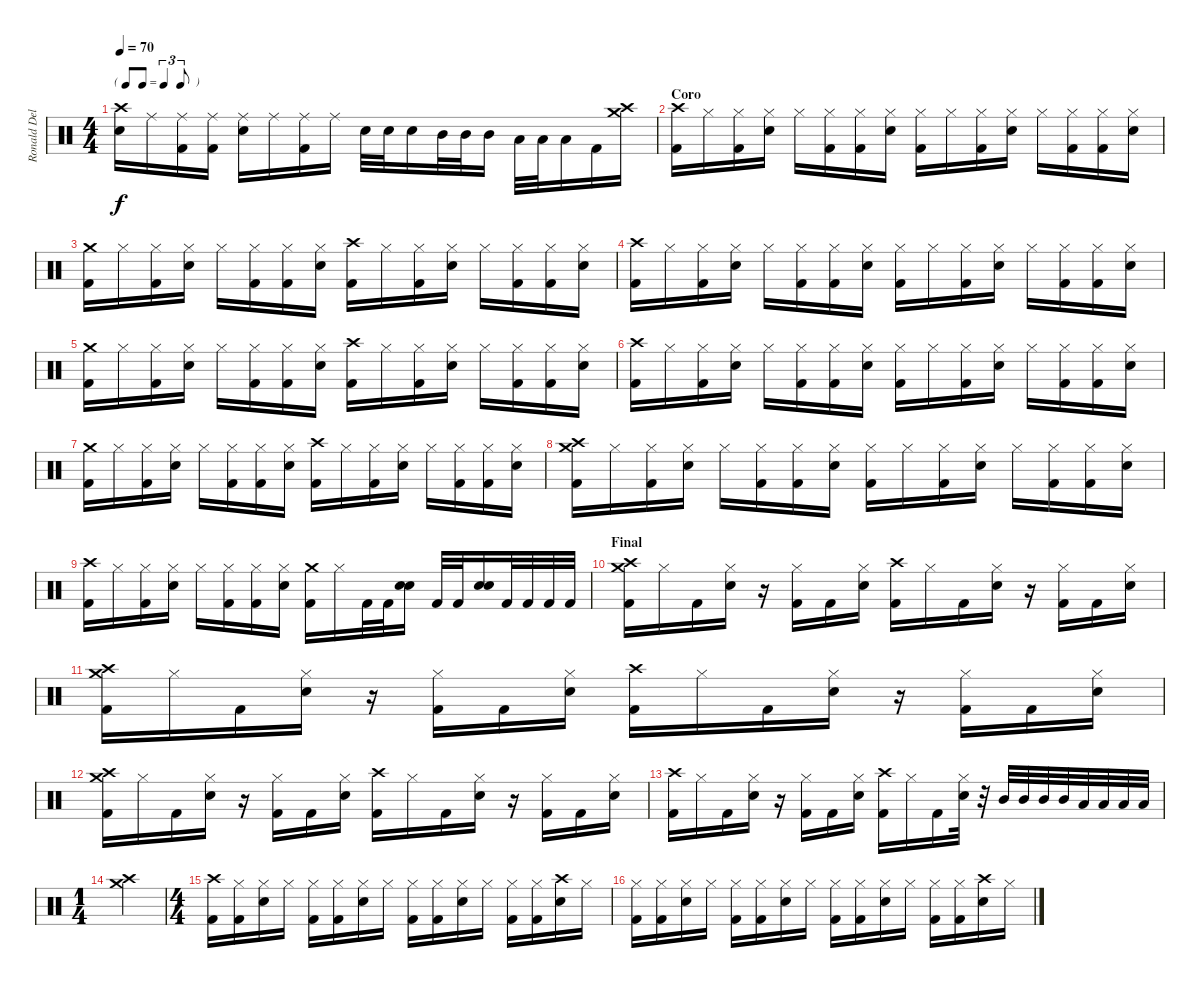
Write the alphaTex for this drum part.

\track ("Ronald Del Aguila (Bateria)" "Ronald Del") {instrument percussion}
\staff {score}
\articulation defaults
\ts (4 4)
\tf triplet8th
\tempo 70
\clef neutral
\ks c
("Crash high (hit)" "Snare (hit) 2").16{dy f} "Ride (middle)".16 ("Ride (middle)" "Kick (hit) 2").16 ("Ride (middle)" "Kick (hit) 2").16 ("Ride (middle)" "Snare (hit) 2").16 "Ride (middle)".16 ("Ride (middle)" "Kick (hit) 2").16 "Ride (middle)".16 "Snare (hit) 2".32 "Snare (hit) 2".32 "Snare (hit) 2".16 "Mid Tom (hit)".32 "Mid Tom (hit)".32 "Mid Tom (hit)".16 "Low Tom (hit)".32 "Low Tom (hit)".32 "Low Tom (hit)".16 "Kick (hit) 2".16 ("Crash high (hit)" "Crash medium (hit)").16 |
\section ("" "Coro")
("Crash high (hit)" "Kick (hit) 2").16 "Hi-Hat (closed)".16 ("Hi-Hat (closed)" "Kick (hit) 2").16 ("Hi-Hat (closed)" "Snare (hit) 2").16 "Hi-Hat (closed)".16 ("Hi-Hat (closed)" "Kick (hit) 2").16 ("Hi-Hat (closed)" "Kick (hit) 2").16 ("Hi-Hat (closed)" "Snare (hit) 2").16 ("Hi-Hat (closed)" "Kick (hit) 2").16 "Hi-Hat (closed)".16 ("Hi-Hat (closed)" "Kick (hit) 2").16 ("Hi-Hat (closed)" "Snare (hit) 2").16 "Hi-Hat (closed)".16 ("Hi-Hat (closed)" "Kick (hit) 2").16 ("Hi-Hat (closed)" "Kick (hit) 2").16 ("Hi-Hat (closed)" "Snare (hit) 2").16 |
("Crash medium (hit)" "Kick (hit) 2").16 "Hi-Hat (closed)".16 ("Hi-Hat (closed)" "Kick (hit) 2").16 ("Hi-Hat (closed)" "Snare (hit) 2").16 "Hi-Hat (closed)".16 ("Hi-Hat (closed)" "Kick (hit) 2").16 ("Hi-Hat (closed)" "Kick (hit) 2").16 ("Hi-Hat (closed)" "Snare (hit) 2").16 ("Crash high (hit)" "Kick (hit) 2").16 "Hi-Hat (closed)".16 ("Hi-Hat (closed)" "Kick (hit) 2").16 ("Hi-Hat (closed)" "Snare (hit) 2").16 "Hi-Hat (closed)".16 ("Hi-Hat (closed)" "Kick (hit) 2").16 ("Hi-Hat (closed)" "Kick (hit) 2").16 ("Hi-Hat (closed)" "Snare (hit) 2").16 |
("Crash high (hit)" "Kick (hit) 2").16 "Hi-Hat (closed)".16 ("Hi-Hat (closed)" "Kick (hit) 2").16 ("Hi-Hat (closed)" "Snare (hit) 2").16 "Hi-Hat (closed)".16 ("Hi-Hat (closed)" "Kick (hit) 2").16 ("Hi-Hat (closed)" "Kick (hit) 2").16 ("Hi-Hat (closed)" "Snare (hit) 2").16 ("Hi-Hat (closed)" "Kick (hit) 2").16 "Hi-Hat (closed)".16 ("Hi-Hat (closed)" "Kick (hit) 2").16 ("Hi-Hat (closed)" "Snare (hit) 2").16 "Hi-Hat (closed)".16 ("Hi-Hat (closed)" "Kick (hit) 2").16 ("Hi-Hat (closed)" "Kick (hit) 2").16 ("Hi-Hat (closed)" "Snare (hit) 2").16 |
("Crash medium (hit)" "Kick (hit) 2").16 "Hi-Hat (closed)".16 ("Hi-Hat (closed)" "Kick (hit) 2").16 ("Hi-Hat (closed)" "Snare (hit) 2").16 "Hi-Hat (closed)".16 ("Hi-Hat (closed)" "Kick (hit) 2").16 ("Hi-Hat (closed)" "Kick (hit) 2").16 ("Hi-Hat (closed)" "Snare (hit) 2").16 ("Crash high (hit)" "Kick (hit) 2").16 "Hi-Hat (closed)".16 ("Hi-Hat (closed)" "Kick (hit) 2").16 ("Hi-Hat (closed)" "Snare (hit) 2").16 "Hi-Hat (closed)".16 ("Hi-Hat (closed)" "Kick (hit) 2").16 ("Hi-Hat (closed)" "Kick (hit) 2").16 ("Hi-Hat (closed)" "Snare (hit) 2").16 |
("Crash high (hit)" "Kick (hit) 2").16 "Hi-Hat (closed)".16 ("Hi-Hat (closed)" "Kick (hit) 2").16 ("Hi-Hat (closed)" "Snare (hit) 2").16 "Hi-Hat (closed)".16 ("Hi-Hat (closed)" "Kick (hit) 2").16 ("Hi-Hat (closed)" "Kick (hit) 2").16 ("Hi-Hat (closed)" "Snare (hit) 2").16 ("Hi-Hat (closed)" "Kick (hit) 2").16 "Hi-Hat (closed)".16 ("Hi-Hat (closed)" "Kick (hit) 2").16 ("Hi-Hat (closed)" "Snare (hit) 2").16 "Hi-Hat (closed)".16 ("Hi-Hat (closed)" "Kick (hit) 2").16 ("Hi-Hat (closed)" "Kick (hit) 2").16 ("Hi-Hat (closed)" "Snare (hit) 2").16 |
("Crash medium (hit)" "Kick (hit) 2").16 "Hi-Hat (closed)".16 ("Hi-Hat (closed)" "Kick (hit) 2").16 ("Hi-Hat (closed)" "Snare (hit) 2").16 "Hi-Hat (closed)".16 ("Hi-Hat (closed)" "Kick (hit) 2").16 ("Hi-Hat (closed)" "Kick (hit) 2").16 ("Hi-Hat (closed)" "Snare (hit) 2").16 ("Crash high (hit)" "Kick (hit) 2").16 "Hi-Hat (closed)".16 ("Hi-Hat (closed)" "Kick (hit) 2").16 ("Hi-Hat (closed)" "Snare (hit) 2").16 "Hi-Hat (closed)".16 ("Hi-Hat (closed)" "Kick (hit) 2").16 ("Hi-Hat (closed)" "Kick (hit) 2").16 ("Hi-Hat (closed)" "Snare (hit) 2").16 |
("Crash medium (hit)" "Crash high (hit)" "Kick (hit) 2").16 "Hi-Hat (closed)".16 ("Hi-Hat (closed)" "Kick (hit) 2").16 ("Hi-Hat (closed)" "Snare (hit) 2").16 "Hi-Hat (closed)".16 ("Hi-Hat (closed)" "Kick (hit) 2").16 ("Hi-Hat (closed)" "Kick (hit) 2").16 ("Hi-Hat (closed)" "Snare (hit) 2").16 ("Hi-Hat (closed)" "Kick (hit) 2").16 "Hi-Hat (closed)".16 ("Hi-Hat (closed)" "Kick (hit) 2").16 ("Hi-Hat (closed)" "Snare (hit) 2").16 "Hi-Hat (closed)".16 ("Hi-Hat (closed)" "Kick (hit) 2").16 ("Hi-Hat (closed)" "Kick (hit) 2").16 ("Hi-Hat (closed)" "Snare (hit) 2").16 |
("Crash high (hit)" "Kick (hit) 2").16 "Hi-Hat (closed)".16 ("Hi-Hat (closed)" "Kick (hit) 2").16 ("Hi-Hat (closed)" "Snare (hit) 2").16 "Hi-Hat (closed)".16 ("Hi-Hat (closed)" "Kick (hit) 2").16 ("Hi-Hat (closed)" "Kick (hit) 2").16 ("Hi-Hat (closed)" "Snare (hit) 2").16 ("Crash medium (hit)" "Kick (hit) 2").16 "Hi-Hat (closed)".16 "Kick (hit) 2".32 "Kick (hit) 2".32 ("Snare (hit) 2" "Snare (hit) 2").16 "Kick (hit) 2".32 "Kick (hit) 2".32 ("Snare (hit) 2" "Snare (hit) 2").16 "Kick (hit) 2".32 "Kick (hit) 2".32 "Kick (hit) 2".32 "Kick (hit) 2".32 |
\section ("" "Final")
("Crash medium (hit)" "Crash high (hit)" "Kick (hit) 2").16 "Hi-Hat (closed)".16 "Kick (hit) 2".16 ("Hi-Hat (closed)" "Snare (hit) 2").16 r.16 ("Hi-Hat (closed)" "Kick (hit) 2").16 "Kick (hit) 2".16 ("Hi-Hat (closed)" "Snare (hit) 2").16 ("Crash high (hit)" "Kick (hit) 2").16 "Hi-Hat (closed)".16 "Kick (hit) 2".16 ("Hi-Hat (closed)" "Snare (hit) 2").16 r.16 ("Hi-Hat (closed)" "Kick (hit) 2").16 "Kick (hit) 2".16 ("Hi-Hat (closed)" "Snare (hit) 2").16 |
("Crash medium (hit)" "Crash high (hit)" "Kick (hit) 2").16 "Hi-Hat (closed)".16 "Kick (hit) 2".16 ("Hi-Hat (closed)" "Snare (hit) 2").16 r.16 ("Hi-Hat (closed)" "Kick (hit) 2").16 "Kick (hit) 2".16 ("Hi-Hat (closed)" "Snare (hit) 2").16 ("Crash high (hit)" "Kick (hit) 2").16 "Hi-Hat (closed)".16 "Kick (hit) 2".16 ("Hi-Hat (closed)" "Snare (hit) 2").16 r.16 ("Hi-Hat (closed)" "Kick (hit) 2").16 "Kick (hit) 2".16 ("Hi-Hat (closed)" "Snare (hit) 2").16 |
("Crash medium (hit)" "Crash high (hit)" "Kick (hit) 2").16 "Hi-Hat (closed)".16 "Kick (hit) 2".16 ("Hi-Hat (closed)" "Snare (hit) 2").16 r.16 ("Hi-Hat (closed)" "Kick (hit) 2").16 "Kick (hit) 2".16 ("Hi-Hat (closed)" "Snare (hit) 2").16 ("Crash high (hit)" "Kick (hit) 2").16 "Hi-Hat (closed)".16 "Kick (hit) 2".16 ("Hi-Hat (closed)" "Snare (hit) 2").16 r.16 ("Hi-Hat (closed)" "Kick (hit) 2").16 "Kick (hit) 2".16 ("Hi-Hat (closed)" "Snare (hit) 2").16 |
("Crash high (hit)" "Kick (hit) 2").16 "Hi-Hat (closed)".16 "Kick (hit) 2".16 ("Hi-Hat (closed)" "Snare (hit) 2").16 r.16 ("Hi-Hat (closed)" "Kick (hit) 2").16 "Kick (hit) 2".16 ("Hi-Hat (closed)" "Snare (hit) 2").16 ("Crash high (hit)" "Kick (hit) 2").16 "Hi-Hat (closed)".16 "Kick (hit) 2".16 ("Hi-Hat (closed)" "Snare (hit) 2").32 r.32 "Mid Tom (hit)".32 "Mid Tom (hit)".32 "Mid Tom (hit)".32 "Mid Tom (hit)".32 "Low Tom (hit)".32 "Low Tom (hit)".32 "Low Tom (hit)".32 "Low Tom (hit)".32 |
\ts (1 4)
("Crash high (hit)" "Crash medium (hit)").4 |
\ts (4 4)
("Kick (hit) 2" "Crash high (hit)").16 ("Kick (hit) 2" "Hi-Hat (closed)").16 ("Snare (hit) 2" "Hi-Hat (closed)").16 "Hi-Hat (closed)".16 ("Kick (hit) 2" "Hi-Hat (closed)").16 ("Kick (hit) 2" "Hi-Hat (closed)").16 ("Snare (hit) 2" "Hi-Hat (closed)").16 "Hi-Hat (closed)".16 ("Kick (hit) 2" "Hi-Hat (closed)").16 ("Kick (hit) 2" "Hi-Hat (closed)").16 ("Snare (hit) 2" "Hi-Hat (closed)").16 "Hi-Hat (closed)".16 ("Kick (hit) 2" "Hi-Hat (closed)").16 ("Kick (hit) 2" "Hi-Hat (closed)").16 ("Snare (hit) 2" "Crash high (hit)").16 "Hi-Hat (closed)".16 |
("Kick (hit) 2" "Hi-Hat (closed)").16 ("Kick (hit) 2" "Hi-Hat (closed)").16 ("Snare (hit) 2" "Hi-Hat (closed)").16 "Hi-Hat (closed)".16 ("Kick (hit) 2" "Hi-Hat (closed)").16 ("Kick (hit) 2" "Hi-Hat (closed)").16 ("Snare (hit) 2" "Hi-Hat (closed)").16 "Hi-Hat (closed)".16 ("Kick (hit) 2" "Hi-Hat (closed)").16 ("Kick (hit) 2" "Hi-Hat (closed)").16 ("Snare (hit) 2" "Hi-Hat (closed)").16 "Hi-Hat (closed)".16 ("Kick (hit) 2" "Hi-Hat (closed)").16 ("Kick (hit) 2" "Hi-Hat (closed)").16 ("Snare (hit) 2" "Crash high (hit)").16 "Hi-Hat (closed)".16
